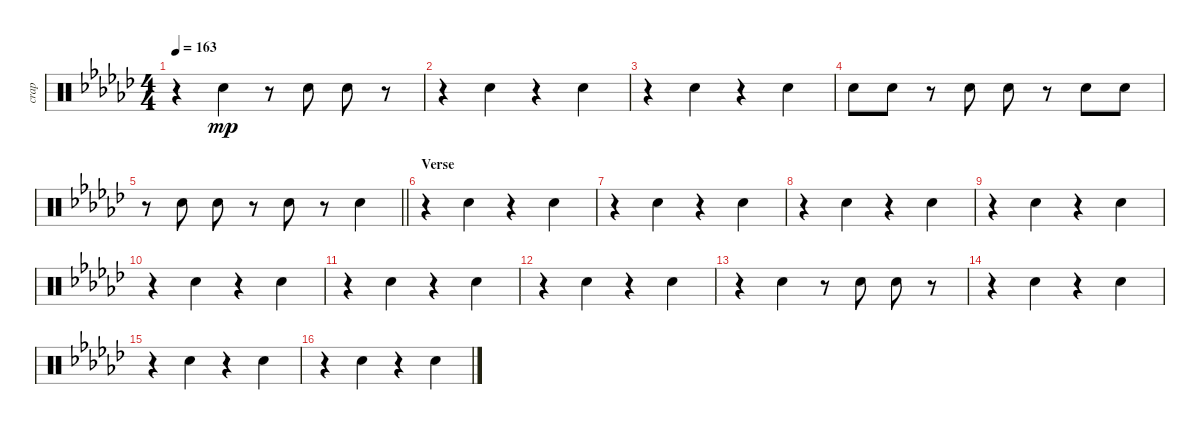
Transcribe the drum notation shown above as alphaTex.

\track ("crap" "crap") {mute instrument percussion}
\staff {score}
\articulation defaults
\ts (4 4)
\tempo 163
\clef neutral
\ks gb
r.4{dy mp} "Hand Clap (hit)".4 r.8 "Hand Clap (hit)".8 "Hand Clap (hit)".8 r.8 |
r.4 "Hand Clap (hit)".4 r.4 "Hand Clap (hit)".4 |
r.4 "Hand Clap (hit)".4 r.4 "Hand Clap (hit)".4 |
"Hand Clap (hit)".8 "Hand Clap (hit)".8 r.8 "Hand Clap (hit)".8 "Hand Clap (hit)".8 r.8 "Hand Clap (hit)".8 "Hand Clap (hit)".8 |
\barLineRight lightlight
r.8 "Hand Clap (hit)".8 "Hand Clap (hit)".8 r.8 "Hand Clap (hit)".8 r.8 "Hand Clap (hit)".4 |
\section ("" "Verse")
r.4 "Hand Clap (hit)".4 r.4 "Hand Clap (hit)".4 |
r.4 "Hand Clap (hit)".4 r.4 "Hand Clap (hit)".4 |
r.4 "Hand Clap (hit)".4 r.4 "Hand Clap (hit)".4 |
r.4 "Hand Clap (hit)".4 r.4 "Hand Clap (hit)".4 |
r.4 "Hand Clap (hit)".4 r.4 "Hand Clap (hit)".4 |
r.4 "Hand Clap (hit)".4 r.4 "Hand Clap (hit)".4 |
r.4 "Hand Clap (hit)".4 r.4 "Hand Clap (hit)".4 |
r.4 "Hand Clap (hit)".4 r.8 "Hand Clap (hit)".8 "Hand Clap (hit)".8 r.8 |
r.4 "Hand Clap (hit)".4 r.4 "Hand Clap (hit)".4 |
r.4 "Hand Clap (hit)".4 r.4 "Hand Clap (hit)".4 |
r.4 "Hand Clap (hit)".4 r.4 "Hand Clap (hit)".4
